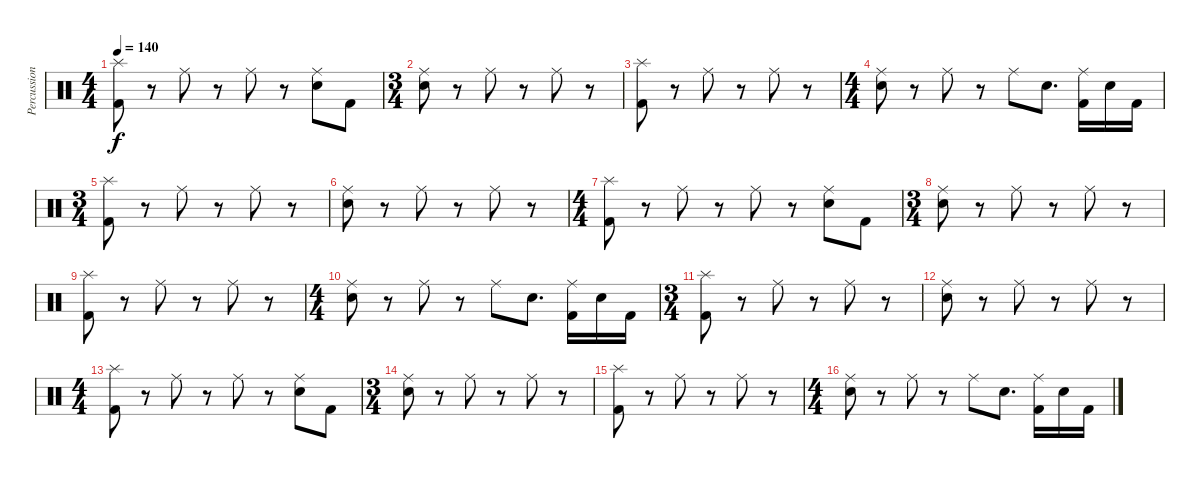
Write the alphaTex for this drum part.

\track ("Percussion" "Percussion") {instrument percussion}
\staff {score}
\articulation defaults
\ts (4 4)
\tempo 140
\clef neutral
\ks c
("Splash (hit)" "Kick (hit) 2").8{dy f} r.8 "Ride (middle)".8 r.8 "Ride (middle)".8 r.8 ("Ride (middle)" "Electric Snare (hit)").8 "Kick (hit) 2".8 |
\ts (3 4)
("Ride (middle)" "Electric Snare (hit)").8 r.8 "Ride (middle)".8 r.8 "Ride (middle)".8 r.8 |
("Splash (hit)" "Kick (hit) 2").8 r.8 "Ride (middle)".8 r.8 "Ride (middle)".8 r.8 |
\ts (4 4)
("Ride (middle)" "Electric Snare (hit)").8 r.8 "Ride (middle)".8 r.8 "Ride (middle)".8 "Electric Snare (hit)".8{d} ("Ride (middle)" "Kick (hit) 2").16 "Electric Snare (hit)".16 "Kick (hit) 2".16 |
\ts (3 4)
("Splash (hit)" "Kick (hit) 2").8 r.8 "Ride (middle)".8 r.8 "Ride (middle)".8 r.8 |
("Ride (middle)" "Electric Snare (hit)").8 r.8 "Ride (middle)".8 r.8 "Ride (middle)".8 r.8 |
\ts (4 4)
("Splash (hit)" "Kick (hit) 2").8 r.8 "Ride (middle)".8 r.8 "Ride (middle)".8 r.8 ("Ride (middle)" "Electric Snare (hit)").8 "Kick (hit) 2".8 |
\ts (3 4)
("Ride (middle)" "Electric Snare (hit)").8 r.8 "Ride (middle)".8 r.8 "Ride (middle)".8 r.8 |
("Splash (hit)" "Kick (hit) 2").8 r.8 "Ride (middle)".8 r.8 "Ride (middle)".8 r.8 |
\ts (4 4)
("Ride (middle)" "Electric Snare (hit)").8 r.8 "Ride (middle)".8 r.8 "Ride (middle)".8 "Electric Snare (hit)".8{d} ("Ride (middle)" "Kick (hit) 2").16 "Electric Snare (hit)".16 "Kick (hit) 2".16 |
\ts (3 4)
("Splash (hit)" "Kick (hit) 2").8 r.8 "Ride (middle)".8 r.8 "Ride (middle)".8 r.8 |
("Ride (middle)" "Electric Snare (hit)").8 r.8 "Ride (middle)".8 r.8 "Ride (middle)".8 r.8 |
\ts (4 4)
("Splash (hit)" "Kick (hit) 2").8 r.8 "Ride (middle)".8 r.8 "Ride (middle)".8 r.8 ("Ride (middle)" "Electric Snare (hit)").8 "Kick (hit) 2".8 |
\ts (3 4)
("Ride (middle)" "Electric Snare (hit)").8 r.8 "Ride (middle)".8 r.8 "Ride (middle)".8 r.8 |
("Splash (hit)" "Kick (hit) 2").8 r.8 "Ride (middle)".8 r.8 "Ride (middle)".8 r.8 |
\ts (4 4)
("Ride (middle)" "Electric Snare (hit)").8 r.8 "Ride (middle)".8 r.8 "Ride (middle)".8 "Electric Snare (hit)".8{d} ("Ride (middle)" "Kick (hit) 2").16 "Electric Snare (hit)".16 "Kick (hit) 2".16
